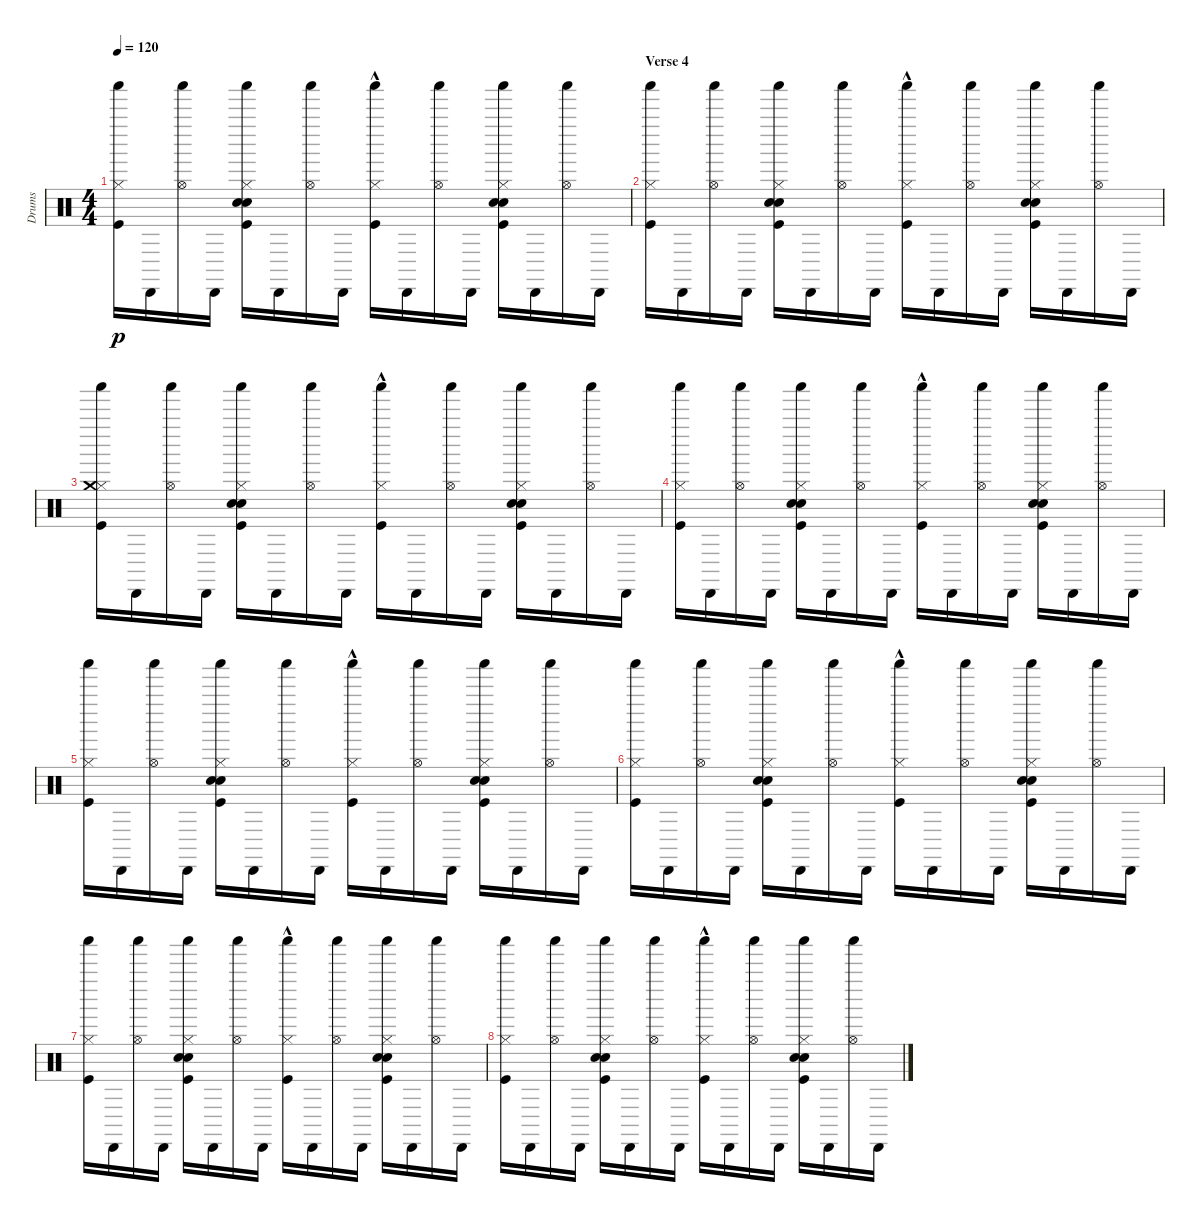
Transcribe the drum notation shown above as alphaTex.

\track ("Drums" "Drums") {instrument percussion}
\staff {score}
\articulation defaults
\ts (4 4)
\tempo 120
\clef neutral
\ks c
("Kick (hit)" "Hi-Hat (closed)" "Shaker (hit)").16{dy p} "Cabasa (hit)".16 ("Hi-Hat (open)" "Shaker (hit)").16 "Cabasa (hit)".16 ("Kick (hit)" "Snare (hit) 2" "Electric Snare (hit)" "Hi-Hat (closed)" "Shaker (hit)").16 "Cabasa (hit)".16 ("Hi-Hat (open)" "Shaker (hit)").16 "Cabasa (hit)".16 ("Kick (hit)" "Hi-Hat (closed)" "Shaker (hit)"{hac}).16 "Cabasa (hit)".16 ("Hi-Hat (open)" "Shaker (hit)").16 "Cabasa (hit)".16 ("Kick (hit)" "Snare (hit) 2" "Electric Snare (hit)" "Hi-Hat (closed)" "Shaker (hit)").16 "Cabasa (hit)".16 ("Hi-Hat (open)" "Shaker (hit)").16 "Cabasa (hit)".16 |
\section ("" "Verse 4")
("Kick (hit)" "Hi-Hat (closed)" "Shaker (hit)").16 "Cabasa (hit)".16 ("Hi-Hat (open)" "Shaker (hit)").16 "Cabasa (hit)".16 ("Kick (hit)" "Snare (hit) 2" "Electric Snare (hit)" "Hi-Hat (closed)" "Shaker (hit)").16 "Cabasa (hit)".16 ("Hi-Hat (open)" "Shaker (hit)").16 "Cabasa (hit)".16 ("Kick (hit)" "Hi-Hat (closed)" "Shaker (hit)"{hac}).16 "Cabasa (hit)".16 ("Hi-Hat (open)" "Shaker (hit)").16 "Cabasa (hit)".16 ("Kick (hit)" "Snare (hit) 2" "Electric Snare (hit)" "Hi-Hat (closed)" "Shaker (hit)").16 "Cabasa (hit)".16 ("Hi-Hat (open)" "Shaker (hit)").16 "Cabasa (hit)".16 |
("Kick (hit)" "Hi-Hat (closed)" "Crash medium (hit)" "Shaker (hit)").16 "Cabasa (hit)".16 ("Hi-Hat (open)" "Shaker (hit)").16 "Cabasa (hit)".16 ("Kick (hit)" "Snare (hit) 2" "Electric Snare (hit)" "Hi-Hat (closed)" "Shaker (hit)").16 "Cabasa (hit)".16 ("Hi-Hat (open)" "Shaker (hit)").16 "Cabasa (hit)".16 ("Kick (hit)" "Hi-Hat (closed)" "Shaker (hit)"{hac}).16 "Cabasa (hit)".16 ("Hi-Hat (open)" "Shaker (hit)").16 "Cabasa (hit)".16 ("Kick (hit)" "Snare (hit) 2" "Electric Snare (hit)" "Hi-Hat (closed)" "Shaker (hit)").16 "Cabasa (hit)".16 ("Hi-Hat (open)" "Shaker (hit)").16 "Cabasa (hit)".16 |
("Kick (hit)" "Hi-Hat (closed)" "Shaker (hit)").16 "Cabasa (hit)".16 ("Hi-Hat (open)" "Shaker (hit)").16 "Cabasa (hit)".16 ("Kick (hit)" "Snare (hit) 2" "Electric Snare (hit)" "Hi-Hat (closed)" "Shaker (hit)").16 "Cabasa (hit)".16 ("Hi-Hat (open)" "Shaker (hit)").16 "Cabasa (hit)".16 ("Kick (hit)" "Hi-Hat (closed)" "Shaker (hit)"{hac}).16 "Cabasa (hit)".16 ("Hi-Hat (open)" "Shaker (hit)").16 "Cabasa (hit)".16 ("Kick (hit)" "Snare (hit) 2" "Electric Snare (hit)" "Hi-Hat (closed)" "Shaker (hit)").16 "Cabasa (hit)".16 ("Hi-Hat (open)" "Shaker (hit)").16 "Cabasa (hit)".16 |
("Kick (hit)" "Hi-Hat (closed)" "Shaker (hit)").16 "Cabasa (hit)".16 ("Hi-Hat (open)" "Shaker (hit)").16 "Cabasa (hit)".16 ("Kick (hit)" "Snare (hit) 2" "Electric Snare (hit)" "Hi-Hat (closed)" "Shaker (hit)").16 "Cabasa (hit)".16 ("Hi-Hat (open)" "Shaker (hit)").16 "Cabasa (hit)".16 ("Kick (hit)" "Hi-Hat (closed)" "Shaker (hit)"{hac}).16 "Cabasa (hit)".16 ("Hi-Hat (open)" "Shaker (hit)").16 "Cabasa (hit)".16 ("Kick (hit)" "Snare (hit) 2" "Electric Snare (hit)" "Hi-Hat (closed)" "Shaker (hit)").16 "Cabasa (hit)".16 ("Hi-Hat (open)" "Shaker (hit)").16 "Cabasa (hit)".16 |
("Kick (hit)" "Hi-Hat (closed)" "Shaker (hit)").16 "Cabasa (hit)".16 ("Hi-Hat (open)" "Shaker (hit)").16 "Cabasa (hit)".16 ("Kick (hit)" "Snare (hit) 2" "Electric Snare (hit)" "Hi-Hat (closed)" "Shaker (hit)").16 "Cabasa (hit)".16 ("Hi-Hat (open)" "Shaker (hit)").16 "Cabasa (hit)".16 ("Kick (hit)" "Hi-Hat (closed)" "Shaker (hit)"{hac}).16 "Cabasa (hit)".16 ("Hi-Hat (open)" "Shaker (hit)").16 "Cabasa (hit)".16 ("Kick (hit)" "Snare (hit) 2" "Electric Snare (hit)" "Hi-Hat (closed)" "Shaker (hit)").16 "Cabasa (hit)".16 ("Hi-Hat (open)" "Shaker (hit)").16 "Cabasa (hit)".16 |
("Kick (hit)" "Hi-Hat (closed)" "Shaker (hit)").16 "Cabasa (hit)".16 ("Hi-Hat (open)" "Shaker (hit)").16 "Cabasa (hit)".16 ("Kick (hit)" "Snare (hit) 2" "Electric Snare (hit)" "Hi-Hat (closed)" "Shaker (hit)").16 "Cabasa (hit)".16 ("Hi-Hat (open)" "Shaker (hit)").16 "Cabasa (hit)".16 ("Kick (hit)" "Hi-Hat (closed)" "Shaker (hit)"{hac}).16 "Cabasa (hit)".16 ("Hi-Hat (open)" "Shaker (hit)").16 "Cabasa (hit)".16 ("Kick (hit)" "Snare (hit) 2" "Electric Snare (hit)" "Hi-Hat (closed)" "Shaker (hit)").16 "Cabasa (hit)".16 ("Hi-Hat (open)" "Shaker (hit)").16 "Cabasa (hit)".16 |
("Kick (hit)" "Hi-Hat (closed)" "Shaker (hit)").16 "Cabasa (hit)".16 ("Hi-Hat (open)" "Shaker (hit)").16 "Cabasa (hit)".16 ("Kick (hit)" "Snare (hit) 2" "Electric Snare (hit)" "Hi-Hat (closed)" "Shaker (hit)").16 "Cabasa (hit)".16 ("Hi-Hat (open)" "Shaker (hit)").16 "Cabasa (hit)".16 ("Kick (hit)" "Hi-Hat (closed)" "Shaker (hit)"{hac}).16 "Cabasa (hit)".16 ("Hi-Hat (open)" "Shaker (hit)").16 "Cabasa (hit)".16 ("Kick (hit)" "Snare (hit) 2" "Electric Snare (hit)" "Hi-Hat (closed)" "Shaker (hit)").16 "Cabasa (hit)".16 ("Hi-Hat (open)" "Shaker (hit)").16 "Cabasa (hit)".16
